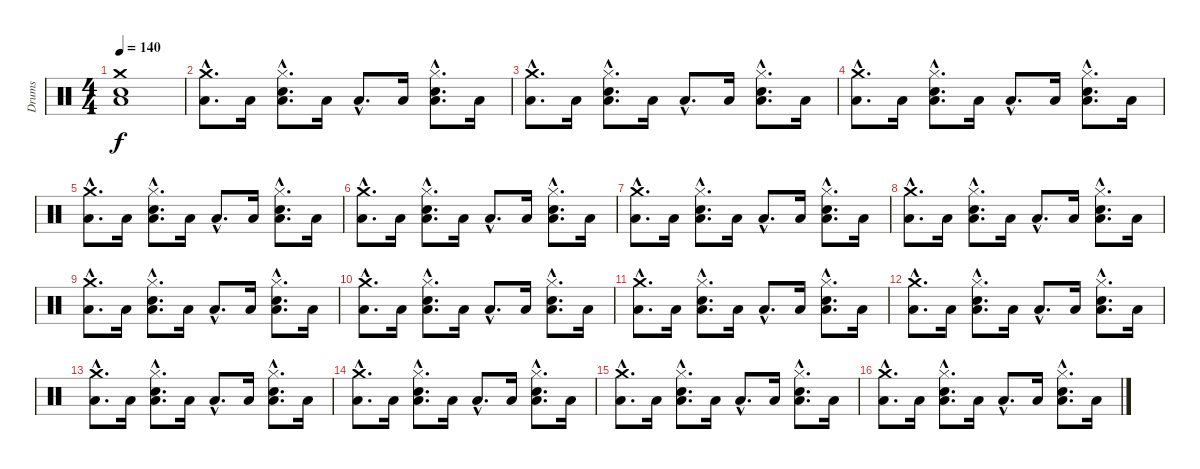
\track ("Drums" "Drums") {instrument percussion}
\staff {score}
\articulation defaults
\ts (4 4)
\tempo 140
\clef neutral
\ks c
("Low Floor Tom (hit)" "Snare (hit) 2" "Crash medium (hit)").1{dy f} |
("Crash medium (hit)"{hac} "Low Floor Tom (hit)"{hac}).8{d} "Low Floor Tom (hit)".16 ("Hi-Hat (closed)"{hac} "Snare (hit) 2"{hac} "Low Floor Tom (hit)"{hac}).8{d} "Low Floor Tom (hit)".16 "Low Floor Tom (hit)"{hac}.8{d} "Low Floor Tom (hit)".16 ("Hi-Hat (closed)"{hac} "Snare (hit) 2"{hac} "Low Floor Tom (hit)"{hac}).8{d} "Low Floor Tom (hit)".16 |
("Crash medium (hit)"{hac} "Low Floor Tom (hit)"{hac}).8{d} "Low Floor Tom (hit)".16 ("Hi-Hat (closed)"{hac} "Snare (hit) 2"{hac} "Low Floor Tom (hit)"{hac}).8{d} "Low Floor Tom (hit)".16 "Low Floor Tom (hit)"{hac}.8{d} "Low Floor Tom (hit)".16 ("Hi-Hat (closed)"{hac} "Snare (hit) 2"{hac} "Low Floor Tom (hit)"{hac}).8{d} "Low Floor Tom (hit)".16 |
("Crash medium (hit)"{hac} "Low Floor Tom (hit)"{hac}).8{d} "Low Floor Tom (hit)".16 ("Hi-Hat (closed)"{hac} "Snare (hit) 2"{hac} "Low Floor Tom (hit)"{hac}).8{d} "Low Floor Tom (hit)".16 "Low Floor Tom (hit)"{hac}.8{d} "Low Floor Tom (hit)".16 ("Hi-Hat (closed)"{hac} "Snare (hit) 2"{hac} "Low Floor Tom (hit)"{hac}).8{d} "Low Floor Tom (hit)".16 |
("Crash medium (hit)"{hac} "Low Floor Tom (hit)"{hac}).8{d} "Low Floor Tom (hit)".16 ("Hi-Hat (closed)"{hac} "Snare (hit) 2"{hac} "Low Floor Tom (hit)"{hac}).8{d} "Low Floor Tom (hit)".16 "Low Floor Tom (hit)"{hac}.8{d} "Low Floor Tom (hit)".16 ("Hi-Hat (closed)"{hac} "Snare (hit) 2"{hac} "Low Floor Tom (hit)"{hac}).8{d} "Low Floor Tom (hit)".16 |
("Crash medium (hit)"{hac} "Low Floor Tom (hit)"{hac}).8{d} "Low Floor Tom (hit)".16 ("Hi-Hat (closed)"{hac} "Snare (hit) 2"{hac} "Low Floor Tom (hit)"{hac}).8{d} "Low Floor Tom (hit)".16 "Low Floor Tom (hit)"{hac}.8{d} "Low Floor Tom (hit)".16 ("Hi-Hat (closed)"{hac} "Snare (hit) 2"{hac} "Low Floor Tom (hit)"{hac}).8{d} "Low Floor Tom (hit)".16 |
("Crash medium (hit)"{hac} "Low Floor Tom (hit)"{hac}).8{d} "Low Floor Tom (hit)".16 ("Hi-Hat (closed)"{hac} "Snare (hit) 2"{hac} "Low Floor Tom (hit)"{hac}).8{d} "Low Floor Tom (hit)".16 "Low Floor Tom (hit)"{hac}.8{d} "Low Floor Tom (hit)".16 ("Hi-Hat (closed)"{hac} "Snare (hit) 2"{hac} "Low Floor Tom (hit)"{hac}).8{d} "Low Floor Tom (hit)".16 |
("Crash medium (hit)"{hac} "Low Floor Tom (hit)"{hac}).8{d} "Low Floor Tom (hit)".16 ("Hi-Hat (closed)"{hac} "Snare (hit) 2"{hac} "Low Floor Tom (hit)"{hac}).8{d} "Low Floor Tom (hit)".16 "Low Floor Tom (hit)"{hac}.8{d} "Low Floor Tom (hit)".16 ("Hi-Hat (closed)"{hac} "Snare (hit) 2"{hac} "Low Floor Tom (hit)"{hac}).8{d} "Low Floor Tom (hit)".16 |
("Crash medium (hit)"{hac} "Low Floor Tom (hit)"{hac}).8{d} "Low Floor Tom (hit)".16 ("Hi-Hat (closed)"{hac} "Snare (hit) 2"{hac} "Low Floor Tom (hit)"{hac}).8{d} "Low Floor Tom (hit)".16 "Low Floor Tom (hit)"{hac}.8{d} "Low Floor Tom (hit)".16 ("Hi-Hat (closed)"{hac} "Snare (hit) 2"{hac} "Low Floor Tom (hit)"{hac}).8{d} "Low Floor Tom (hit)".16 |
("Crash medium (hit)"{hac} "Low Floor Tom (hit)"{hac}).8{d} "Low Floor Tom (hit)".16 ("Hi-Hat (closed)"{hac} "Snare (hit) 2"{hac} "Low Floor Tom (hit)"{hac}).8{d} "Low Floor Tom (hit)".16 "Low Floor Tom (hit)"{hac}.8{d} "Low Floor Tom (hit)".16 ("Hi-Hat (closed)"{hac} "Snare (hit) 2"{hac} "Low Floor Tom (hit)"{hac}).8{d} "Low Floor Tom (hit)".16 |
("Crash medium (hit)"{hac} "Low Floor Tom (hit)"{hac}).8{d} "Low Floor Tom (hit)".16 ("Hi-Hat (closed)"{hac} "Snare (hit) 2"{hac} "Low Floor Tom (hit)"{hac}).8{d} "Low Floor Tom (hit)".16 "Low Floor Tom (hit)"{hac}.8{d} "Low Floor Tom (hit)".16 ("Hi-Hat (closed)"{hac} "Snare (hit) 2"{hac} "Low Floor Tom (hit)"{hac}).8{d} "Low Floor Tom (hit)".16 |
("Crash medium (hit)"{hac} "Low Floor Tom (hit)"{hac}).8{d} "Low Floor Tom (hit)".16 ("Hi-Hat (closed)"{hac} "Snare (hit) 2"{hac} "Low Floor Tom (hit)"{hac}).8{d} "Low Floor Tom (hit)".16 "Low Floor Tom (hit)"{hac}.8{d} "Low Floor Tom (hit)".16 ("Hi-Hat (closed)"{hac} "Snare (hit) 2"{hac} "Low Floor Tom (hit)"{hac}).8{d} "Low Floor Tom (hit)".16 |
("Crash medium (hit)"{hac} "Low Floor Tom (hit)"{hac}).8{d} "Low Floor Tom (hit)".16 ("Hi-Hat (closed)"{hac} "Snare (hit) 2"{hac} "Low Floor Tom (hit)"{hac}).8{d} "Low Floor Tom (hit)".16 "Low Floor Tom (hit)"{hac}.8{d} "Low Floor Tom (hit)".16 ("Hi-Hat (closed)"{hac} "Snare (hit) 2"{hac} "Low Floor Tom (hit)"{hac}).8{d} "Low Floor Tom (hit)".16 |
("Crash medium (hit)"{hac} "Low Floor Tom (hit)"{hac}).8{d} "Low Floor Tom (hit)".16 ("Hi-Hat (closed)"{hac} "Snare (hit) 2"{hac} "Low Floor Tom (hit)"{hac}).8{d} "Low Floor Tom (hit)".16 "Low Floor Tom (hit)"{hac}.8{d} "Low Floor Tom (hit)".16 ("Hi-Hat (closed)"{hac} "Snare (hit) 2"{hac} "Low Floor Tom (hit)"{hac}).8{d} "Low Floor Tom (hit)".16 |
("Crash medium (hit)"{hac} "Low Floor Tom (hit)"{hac}).8{d} "Low Floor Tom (hit)".16 ("Hi-Hat (closed)"{hac} "Snare (hit) 2"{hac} "Low Floor Tom (hit)"{hac}).8{d} "Low Floor Tom (hit)".16 "Low Floor Tom (hit)"{hac}.8{d} "Low Floor Tom (hit)".16 ("Hi-Hat (closed)"{hac} "Snare (hit) 2"{hac} "Low Floor Tom (hit)"{hac}).8{d} "Low Floor Tom (hit)".16 |
("Crash medium (hit)"{hac} "Low Floor Tom (hit)"{hac}).8{d} "Low Floor Tom (hit)".16 ("Hi-Hat (closed)"{hac} "Snare (hit) 2"{hac} "Low Floor Tom (hit)"{hac}).8{d} "Low Floor Tom (hit)".16 "Low Floor Tom (hit)"{hac}.8{d} "Low Floor Tom (hit)".16 ("Hi-Hat (closed)"{hac} "Snare (hit) 2"{hac} "Low Floor Tom (hit)"{hac}).8{d} "Low Floor Tom (hit)".16
